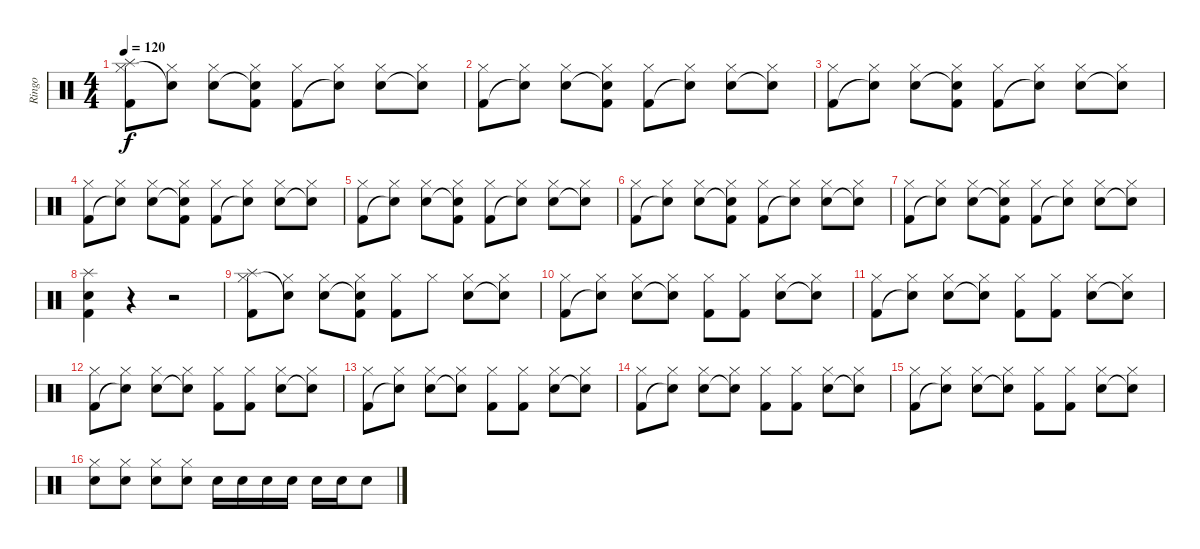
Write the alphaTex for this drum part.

\track ("Ringo" "Ringo") {instrument percussion}
\staff {score}
\articulation defaults
\ts (4 4)
\tempo 120
\clef neutral
\ks c
("Splash (hit)" "Hi-Hat (closed)" "Kick (hit) 2").8{dy f} ("Hi-Hat (closed)" "Snare (hit)"{t}).8 ("Hi-Hat (closed)" "Snare (hit) 2").8 ("Hi-Hat (closed)" "Snare (hit)"{t} "Kick (hit) 2").8 ("Hi-Hat (closed)" "Kick (hit) 2").8 ("Hi-Hat (closed)" "Snare (hit)"{t}).8 ("Hi-Hat (closed)" "Snare (hit) 2").8 ("Hi-Hat (closed)" "Snare (hit)"{t}).8 |
("Hi-Hat (closed)" "Kick (hit) 2").8 ("Hi-Hat (closed)" "Snare (hit)"{t}).8 ("Hi-Hat (closed)" "Snare (hit) 2").8 ("Hi-Hat (closed)" "Snare (hit)"{t} "Kick (hit) 2").8 ("Hi-Hat (closed)" "Kick (hit) 2").8 ("Hi-Hat (closed)" "Snare (hit)"{t}).8 ("Hi-Hat (closed)" "Snare (hit) 2").8 ("Hi-Hat (closed)" "Snare (hit)"{t}).8 |
("Hi-Hat (closed)" "Kick (hit) 2").8 ("Hi-Hat (closed)" "Snare (hit)"{t}).8 ("Hi-Hat (closed)" "Snare (hit) 2").8 ("Hi-Hat (closed)" "Snare (hit)"{t} "Kick (hit) 2").8 ("Hi-Hat (closed)" "Kick (hit) 2").8 ("Hi-Hat (closed)" "Snare (hit)"{t}).8 ("Hi-Hat (closed)" "Snare (hit) 2").8 ("Hi-Hat (closed)" "Snare (hit)"{t}).8 |
("Hi-Hat (closed)" "Kick (hit) 2").8 ("Hi-Hat (closed)" "Snare (hit)"{t}).8 ("Hi-Hat (closed)" "Snare (hit) 2").8 ("Hi-Hat (closed)" "Snare (hit)"{t} "Kick (hit) 2").8 ("Hi-Hat (closed)" "Kick (hit) 2").8 ("Hi-Hat (closed)" "Snare (hit)"{t}).8 ("Hi-Hat (closed)" "Snare (hit) 2").8 ("Hi-Hat (closed)" "Snare (hit)"{t}).8 |
("Hi-Hat (closed)" "Kick (hit) 2").8 ("Hi-Hat (closed)" "Snare (hit)"{t}).8 ("Hi-Hat (closed)" "Snare (hit) 2").8 ("Hi-Hat (closed)" "Snare (hit)"{t} "Kick (hit) 2").8 ("Hi-Hat (closed)" "Kick (hit) 2").8 ("Hi-Hat (closed)" "Snare (hit)"{t}).8 ("Hi-Hat (closed)" "Snare (hit) 2").8 ("Hi-Hat (closed)" "Snare (hit)"{t}).8 |
("Hi-Hat (closed)" "Kick (hit) 2").8 ("Hi-Hat (closed)" "Snare (hit)"{t}).8 ("Hi-Hat (closed)" "Snare (hit) 2").8 ("Hi-Hat (closed)" "Snare (hit)"{t} "Kick (hit) 2").8 ("Hi-Hat (closed)" "Kick (hit) 2").8 ("Hi-Hat (closed)" "Snare (hit)"{t}).8 ("Hi-Hat (closed)" "Snare (hit) 2").8 ("Hi-Hat (closed)" "Snare (hit)"{t}).8 |
("Hi-Hat (closed)" "Kick (hit) 2").8 ("Hi-Hat (closed)" "Snare (hit)"{t}).8 ("Hi-Hat (closed)" "Snare (hit) 2").8 ("Hi-Hat (closed)" "Snare (hit)"{t} "Kick (hit) 2").8 ("Hi-Hat (closed)" "Kick (hit) 2").8 ("Hi-Hat (closed)" "Snare (hit)"{t}).8 ("Hi-Hat (closed)" "Snare (hit) 2").8 ("Hi-Hat (closed)" "Snare (hit)"{t}).8 |
("Splash (hit)" "Snare (hit) 2" "Kick (hit) 2").4 r.4 r.2 |
("Splash (hit)" "Hi-Hat (closed)" "Kick (hit) 2").8 ("Hi-Hat (closed)" "Snare (hit)"{t}).8 ("Hi-Hat (closed)" "Snare (hit) 2").8 ("Hi-Hat (closed)" "Snare (hit)"{t} "Kick (hit) 2").8 ("Hi-Hat (closed)" "Kick (hit) 2").8 "Hi-Hat (closed)".8 ("Hi-Hat (closed)" "Snare (hit) 2").8 ("Hi-Hat (closed)" "Snare (hit)"{t}).8 |
("Hi-Hat (closed)" "Kick (hit) 2").8 ("Hi-Hat (closed)" "Snare (hit)"{t}).8 ("Hi-Hat (closed)" "Snare (hit) 2").8 ("Hi-Hat (closed)" "Snare (hit)"{t}).8 ("Hi-Hat (closed)" "Kick (hit) 2").8 ("Hi-Hat (closed)" "Kick (hit) 2").8 ("Hi-Hat (closed)" "Snare (hit) 2").8 ("Hi-Hat (closed)" "Snare (hit)"{t}).8 |
("Hi-Hat (closed)" "Kick (hit) 2").8 ("Hi-Hat (closed)" "Snare (hit)"{t}).8 ("Hi-Hat (closed)" "Snare (hit) 2").8 ("Hi-Hat (closed)" "Snare (hit)"{t}).8 ("Hi-Hat (closed)" "Kick (hit) 2").8 ("Hi-Hat (closed)" "Kick (hit) 2").8 ("Hi-Hat (closed)" "Snare (hit) 2").8 ("Hi-Hat (closed)" "Snare (hit)"{t}).8 |
("Hi-Hat (closed)" "Kick (hit) 2").8 ("Hi-Hat (closed)" "Snare (hit)"{t}).8 ("Hi-Hat (closed)" "Snare (hit) 2").8 ("Hi-Hat (closed)" "Snare (hit)"{t}).8 ("Hi-Hat (closed)" "Kick (hit) 2").8 ("Hi-Hat (closed)" "Kick (hit) 2").8 ("Hi-Hat (closed)" "Snare (hit) 2").8 ("Hi-Hat (closed)" "Snare (hit)"{t}).8 |
("Hi-Hat (closed)" "Kick (hit) 2").8 ("Hi-Hat (closed)" "Snare (hit)"{t}).8 ("Hi-Hat (closed)" "Snare (hit) 2").8 ("Hi-Hat (closed)" "Snare (hit)"{t}).8 ("Hi-Hat (closed)" "Kick (hit) 2").8 ("Hi-Hat (closed)" "Kick (hit) 2").8 ("Hi-Hat (closed)" "Snare (hit) 2").8 ("Hi-Hat (closed)" "Snare (hit)"{t}).8 |
("Hi-Hat (closed)" "Kick (hit) 2").8 ("Hi-Hat (closed)" "Snare (hit)"{t}).8 ("Hi-Hat (closed)" "Snare (hit) 2").8 ("Hi-Hat (closed)" "Snare (hit)"{t}).8 ("Hi-Hat (closed)" "Kick (hit) 2").8 ("Hi-Hat (closed)" "Kick (hit) 2").8 ("Hi-Hat (closed)" "Snare (hit) 2").8 ("Hi-Hat (closed)" "Snare (hit)"{t}).8 |
("Hi-Hat (closed)" "Kick (hit) 2").8 ("Hi-Hat (closed)" "Snare (hit)"{t}).8 ("Hi-Hat (closed)" "Snare (hit) 2").8 ("Hi-Hat (closed)" "Snare (hit)"{t}).8 ("Hi-Hat (closed)" "Kick (hit) 2").8 ("Hi-Hat (closed)" "Kick (hit) 2").8 ("Hi-Hat (closed)" "Snare (hit) 2").8 ("Hi-Hat (closed)" "Snare (hit)"{t}).8 |
("Hi-Hat (closed)" "Snare (hit) 2").8 ("Hi-Hat (closed)" "Snare (hit) 2").8 ("Hi-Hat (closed)" "Snare (hit) 2").8 ("Hi-Hat (closed)" "Snare (hit) 2").8 "Snare (hit) 2".16 "Snare (hit) 2".16 "Snare (hit) 2".16 "Snare (hit) 2".16 "Snare (hit) 2".16 "Snare (hit) 2".16 "Snare (hit) 2".8
